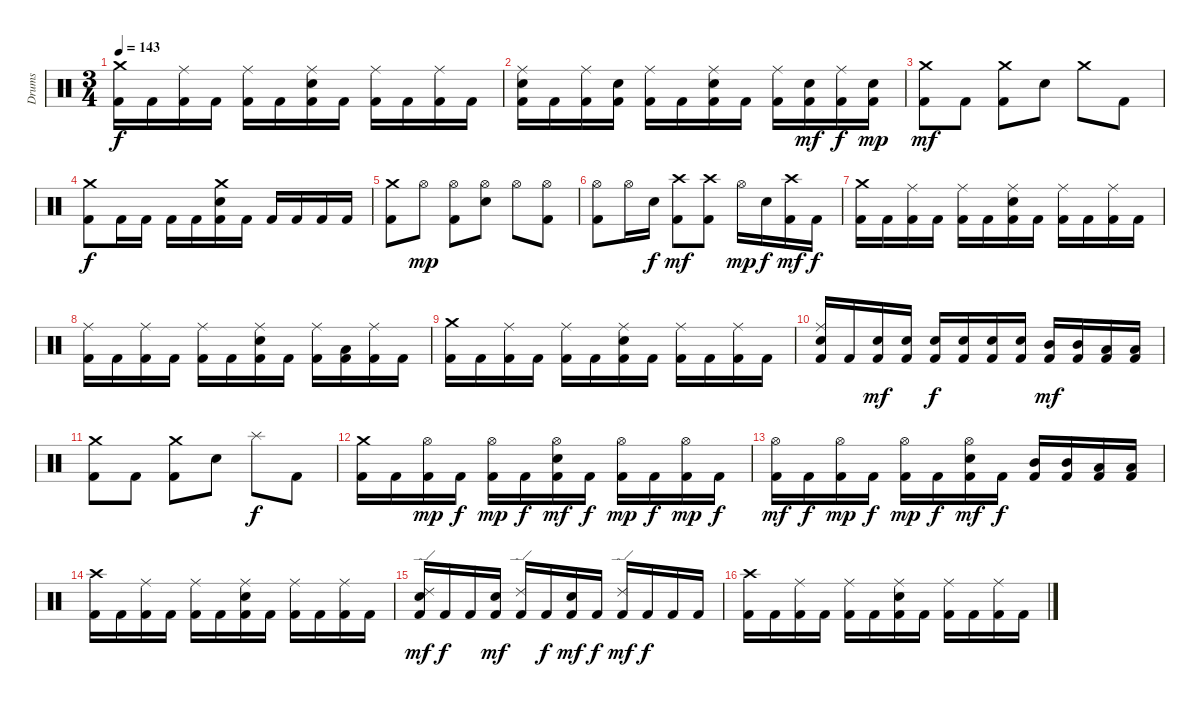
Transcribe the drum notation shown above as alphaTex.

\track ("Drums" "Drums") {instrument percussion}
\staff {score}
\articulation defaults
\ts (3 4)
\tempo 143
\clef neutral
\ks c
("Crash medium (hit)" "Kick (hit) 2").16{dy f} "Kick (hit) 2".16 ("Ride (middle)" "Kick (hit) 2").16 "Kick (hit) 2".16 ("Ride (middle)" "Kick (hit) 2").16 "Kick (hit) 2".16 ("Ride (middle)" "Electric Snare (hit)" "Kick (hit) 2").16 "Kick (hit) 2".16 ("Ride (middle)" "Kick (hit) 2").16 "Kick (hit) 2".16 ("Ride (middle)" "Kick (hit) 2").16 "Kick (hit) 2".16 |
("Ride (middle)" "Electric Snare (hit)" "Kick (hit) 2").16 "Kick (hit) 2".16 ("Ride (middle)" "Kick (hit) 2").16 ("Electric Snare (hit)" "Kick (hit) 2").16 ("Ride (middle)" "Kick (hit) 2").16 "Kick (hit) 2".16 ("Ride (middle)" "Electric Snare (hit)" "Kick (hit) 2").16 "Kick (hit) 2".16 ("Ride (middle)" "Kick (hit) 2").16 ("Electric Snare (hit)" "Kick (hit) 2").16{dy mf} ("Ride (middle)" "Kick (hit) 2").16{dy f} ("Electric Snare (hit)" "Kick (hit) 2").16{dy mp} |
("Crash medium (hit)" "Kick (hit) 2").8{dy mf} "Kick (hit) 2".8 ("Crash medium (hit)" "Kick (hit) 2").8 "Electric Snare (hit)".8 "Crash medium (hit)".8 "Kick (hit) 2".8 |
("Crash medium (hit)" "Kick (hit) 2").8{dy f} "Kick (hit) 2".16 "Kick (hit) 2".16 "Kick (hit) 2".16 "Kick (hit) 2".16 ("Crash medium (hit)" "Electric Snare (hit)" "Kick (hit) 2").16 "Kick (hit) 2".16 "Kick (hit) 2".16 "Kick (hit) 2".16 "Kick (hit) 2".16 "Kick (hit) 2".16 |
("Crash medium (hit)" "Kick (hit) 2").8 "Hi-Hat (open)".8{dy mp} ("Hi-Hat (open)" "Kick (hit) 2").8 ("Hi-Hat (open)" "Electric Snare (hit)").8 "Hi-Hat (open)".8 ("Hi-Hat (open)" "Kick (hit) 2").8 |
("Hi-Hat (open)" "Kick (hit) 2").8 "Hi-Hat (open)".16 "Electric Snare (hit)".16{dy f} ("Crash high (hit)" "Kick (hit) 2").8{dy mf} ("Crash high (hit)" "Kick (hit) 2").8 "Hi-Hat (open)".16{dy mp} "Electric Snare (hit)".16{dy f} ("Crash high (hit)" "Kick (hit) 2").16{dy mf} "Kick (hit) 2".16{dy f} |
("Crash medium (hit)" "Kick (hit) 2").16 "Kick (hit) 2".16 ("Ride (middle)" "Kick (hit) 2").16 "Kick (hit) 2".16 ("Ride (middle)" "Kick (hit) 2").16 "Kick (hit) 2".16 ("Ride (middle)" "Electric Snare (hit)" "Kick (hit) 2").16 "Kick (hit) 2".16 ("Ride (middle)" "Kick (hit) 2").16 "Kick (hit) 2".16 ("Ride (middle)" "Kick (hit) 2").16 "Kick (hit) 2".16 |
("Ride (middle)" "Kick (hit) 2").16 "Kick (hit) 2".16 ("Ride (middle)" "Kick (hit) 2").16 "Kick (hit) 2".16 ("Ride (middle)" "Kick (hit) 2").16 "Kick (hit) 2".16 ("Ride (middle)" "Electric Snare (hit)" "Kick (hit) 2").16 "Kick (hit) 2".16 ("Ride (middle)" "Kick (hit) 2").16 ("Low Tom (hit)" "Kick (hit) 2").16 ("Ride (middle)" "Kick (hit) 2").16 "Kick (hit) 2".16 |
("Crash medium (hit)" "Kick (hit) 2").16 "Kick (hit) 2".16 ("Ride (middle)" "Kick (hit) 2").16 "Kick (hit) 2".16 ("Ride (middle)" "Kick (hit) 2").16 "Kick (hit) 2".16 ("Ride (middle)" "Electric Snare (hit)" "Kick (hit) 2").16 "Kick (hit) 2".16 ("Ride (middle)" "Kick (hit) 2").16 "Kick (hit) 2".16 ("Ride (middle)" "Kick (hit) 2").16 "Kick (hit) 2".16 |
("Ride (middle)" "Electric Snare (hit)" "Kick (hit) 2").16 "Kick (hit) 2".16 ("Electric Snare (hit)" "Kick (hit) 2").16{dy mf} ("Electric Snare (hit)" "Kick (hit) 2").16 ("Electric Snare (hit)" "Kick (hit) 2").16{dy f} ("Electric Snare (hit)" "Kick (hit) 2").16 ("Electric Snare (hit)" "Kick (hit) 2").16 ("Electric Snare (hit)" "Kick (hit) 2").16 ("Mid Tom (hit)" "Kick (hit) 2").16{dy mf} ("Mid Tom (hit)" "Kick (hit) 2").16 ("Low Tom (hit)" "Kick (hit) 2").16 ("Low Tom (hit)" "Kick (hit) 2").16 |
("Crash medium (hit)" "Kick (hit) 2").8 "Kick (hit) 2".8 ("Crash medium (hit)" "Kick (hit) 2").8 "Electric Snare (hit)".8 "Splash (hit)".8{dy f} "Kick (hit) 2".8 |
("Crash medium (hit)" "Kick (hit) 2").16 "Kick (hit) 2".16 ("Hi-Hat (open)" "Kick (hit) 2").16{dy mp} "Kick (hit) 2".16{dy f} ("Hi-Hat (open)" "Kick (hit) 2").16{dy mp} "Kick (hit) 2".16{dy f} ("Hi-Hat (open)" "Electric Snare (hit)" "Kick (hit) 2").16{dy mf} "Kick (hit) 2".16{dy f} ("Hi-Hat (open)" "Kick (hit) 2").16{dy mp} "Kick (hit) 2".16{dy f} ("Hi-Hat (open)" "Kick (hit) 2").16{dy mp} "Kick (hit) 2".16{dy f} |
("Hi-Hat (open)" "Kick (hit) 2").16{dy mf} "Kick (hit) 2".16{dy f} ("Hi-Hat (open)" "Kick (hit) 2").16{dy mp} "Kick (hit) 2".16{dy f} ("Hi-Hat (open)" "Kick (hit) 2").16{dy mp} "Kick (hit) 2".16{dy f} ("Hi-Hat (open)" "Electric Snare (hit)" "Kick (hit) 2").16{dy mf} "Kick (hit) 2".16{dy f} ("Mid Tom (hit)" "Kick (hit) 2").16 ("Mid Tom (hit)" "Kick (hit) 2").16 ("Low Tom (hit)" "Kick (hit) 2").16 ("Low Tom (hit)" "Kick (hit) 2").16 |
("Crash high (hit)" "Kick (hit) 2").16 "Kick (hit) 2".16 ("Ride (middle)" "Kick (hit) 2").16 "Kick (hit) 2".16 ("Ride (middle)" "Kick (hit) 2").16 "Kick (hit) 2".16 ("Ride (middle)" "Electric Snare (hit)" "Kick (hit) 2").16 "Kick (hit) 2".16 ("Ride (middle)" "Kick (hit) 2").16 "Kick (hit) 2".16 ("Ride (middle)" "Kick (hit) 2").16 "Kick (hit) 2".16 |
("Ride (edge) 2" "Electric Snare (hit)" "Kick (hit) 2").16{dy mf} "Kick (hit) 2".16{dy f} "Kick (hit) 2".16 ("Electric Snare (hit)" "Kick (hit) 2").16{dy mf} ("Ride (edge) 2" "Kick (hit) 2").16 "Kick (hit) 2".16{dy f} ("Electric Snare (hit)" "Kick (hit) 2").16{dy mf} "Kick (hit) 2".16{dy f} ("Ride (edge) 2" "Kick (hit) 2").16{dy mf} "Kick (hit) 2".16{dy f} "Kick (hit) 2".16 "Kick (hit) 2".16 |
("Crash high (hit)" "Kick (hit) 2").16 "Kick (hit) 2".16 ("Ride (middle)" "Kick (hit) 2").16 "Kick (hit) 2".16 ("Ride (middle)" "Kick (hit) 2").16 "Kick (hit) 2".16 ("Ride (middle)" "Electric Snare (hit)" "Kick (hit) 2").16 "Kick (hit) 2".16 ("Ride (middle)" "Kick (hit) 2").16 "Kick (hit) 2".16 ("Ride (middle)" "Kick (hit) 2").16 "Kick (hit) 2".16
